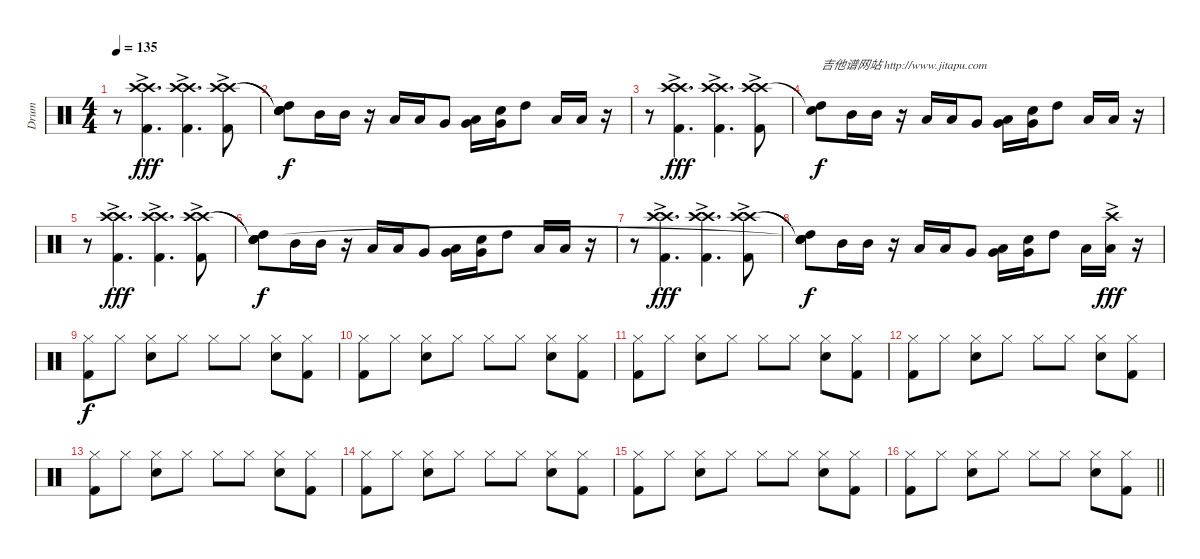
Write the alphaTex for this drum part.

\track ("Drum" "Drum") {instrument percussion}
\staff {score}
\articulation defaults
\ts (4 4)
\tempo 135
\clef neutral
\ks c
r.8{dy f} ("Crash high (hit)"{ac} "Crash high (hit)"{ac} "Kick (hit) 2"{ac}).4{d dy fff} ("Crash high (hit)"{ac} "Crash high (hit)"{ac} "Kick (hit) 2"{ac}).4{d} ("Crash high (hit)"{ac} "Crash high (hit)"{ac} "Kick (hit) 2"{ac}).8 |
("Snare (hit)"{t} "Snare (hit)"{t} "High Tom (hit)" "Snare (hit)").8{dy f} "Mid Tom (hit)".16 "Mid Tom (hit)".16 r.16 "Low Tom (hit)".16 "Low Tom (hit)".16 "Very Low Tom (hit)".8 ("Low Floor Tom (hit)" "Very Low Tom (hit)").16 ("Electric Snare (hit)" "Very Low Tom (hit)").16 "High Tom (hit)".8 "Low Floor Tom (hit)".16 "Low Floor Tom (hit)".16 r.16 |
r.8 ("Crash high (hit)"{ac} "Crash high (hit)"{ac} "Kick (hit) 2"{ac}).4{d dy fff} ("Crash high (hit)"{ac} "Crash high (hit)"{ac} "Kick (hit) 2"{ac}).4{d} ("Crash high (hit)"{ac} "Crash high (hit)"{ac} "Kick (hit) 2"{ac}).8 |
("High Tom (hit)" "Snare (hit)"{t}).8{txt "吉他谱网站 http://www.jitapu.com" dy f} "Mid Tom (hit)".16 "Mid Tom (hit)".16 r.16 "Low Tom (hit)".16 "Low Tom (hit)".16 "Very Low Tom (hit)".8 ("Low Floor Tom (hit)" "Very Low Tom (hit)").16 ("Electric Snare (hit)" "Very Low Tom (hit)").16 "High Tom (hit)".8 "Low Floor Tom (hit)".16 "Low Floor Tom (hit)".16 r.16 |
r.8 ("Crash high (hit)"{ac} "Crash high (hit)"{ac} "Kick (hit) 2"{ac}).4{d dy fff} ("Crash high (hit)"{ac} "Crash high (hit)"{ac} "Kick (hit) 2"{ac}).4{d} ("Crash high (hit)"{ac} "Crash high (hit)"{ac} "Kick (hit) 2"{ac}).8 |
("Snare (hit)"{t} "Snare (hit)"{t} "High Tom (hit)" "Snare (hit)").8{dy f} "Mid Tom (hit)".16 "Mid Tom (hit)".16 r.16 "Low Tom (hit)".16 "Low Tom (hit)".16 "Very Low Tom (hit)".8 ("Low Floor Tom (hit)" "Very Low Tom (hit)").16 ("Electric Snare (hit)" "Very Low Tom (hit)").16 "High Tom (hit)".8 "Low Floor Tom (hit)".16 "Low Floor Tom (hit)".16 r.16 |
r.8 ("Crash high (hit)"{ac} "Crash high (hit)"{ac} "Kick (hit) 2"{ac}).4{d dy fff} ("Crash high (hit)"{ac} "Crash high (hit)"{ac} "Kick (hit) 2"{ac}).4{d} ("Crash high (hit)"{ac} "Crash high (hit)"{ac} "Kick (hit) 2"{ac}).8 |
("Snare (hit)"{t} "Snare (hit)"{t} "High Tom (hit)" "Snare (hit)"{t}).8{dy f} "Mid Tom (hit)".16 "Mid Tom (hit)".16 r.16 "Low Tom (hit)".16 "Low Tom (hit)".16 "Very Low Tom (hit)".8 ("Low Floor Tom (hit)" "Very Low Tom (hit)").16 ("Electric Snare (hit)" "Very Low Tom (hit)").16 "High Tom (hit)".8 "Low Floor Tom (hit)".16 ("Crash high (hit)"{ac} "Low Floor Tom (hit)").16{dy fff} r.16 |
("Hi-Hat (closed)" "Kick (hit) 2").8{dy f} "Hi-Hat (closed)".8 ("Snare (hit) 2" "Hi-Hat (closed)").8 "Hi-Hat (closed)".8 "Hi-Hat (closed)".8 "Hi-Hat (closed)".8 ("Snare (hit) 2" "Hi-Hat (closed)").8 ("Hi-Hat (closed)" "Kick (hit) 2").8 |
("Hi-Hat (closed)" "Kick (hit) 2").8 "Hi-Hat (closed)".8 ("Snare (hit) 2" "Hi-Hat (closed)").8 "Hi-Hat (closed)".8 "Hi-Hat (closed)".8 "Hi-Hat (closed)".8 ("Snare (hit) 2" "Hi-Hat (closed)").8 ("Hi-Hat (closed)" "Kick (hit) 2").8 |
("Hi-Hat (closed)" "Kick (hit) 2").8 "Hi-Hat (closed)".8 ("Snare (hit) 2" "Hi-Hat (closed)").8 "Hi-Hat (closed)".8 "Hi-Hat (closed)".8 "Hi-Hat (closed)".8 ("Snare (hit) 2" "Hi-Hat (closed)").8 ("Hi-Hat (closed)" "Kick (hit) 2").8 |
("Hi-Hat (closed)" "Kick (hit) 2").8 "Hi-Hat (closed)".8 ("Snare (hit) 2" "Hi-Hat (closed)").8 "Hi-Hat (closed)".8 "Hi-Hat (closed)".8 "Hi-Hat (closed)".8 ("Snare (hit) 2" "Hi-Hat (closed)").8 ("Hi-Hat (closed)" "Kick (hit) 2").8 |
("Hi-Hat (closed)" "Kick (hit) 2").8 "Hi-Hat (closed)".8 ("Snare (hit) 2" "Hi-Hat (closed)").8 "Hi-Hat (closed)".8 "Hi-Hat (closed)".8 "Hi-Hat (closed)".8 ("Snare (hit) 2" "Hi-Hat (closed)").8 ("Hi-Hat (closed)" "Kick (hit) 2").8 |
("Hi-Hat (closed)" "Kick (hit) 2").8 "Hi-Hat (closed)".8 ("Snare (hit) 2" "Hi-Hat (closed)").8 "Hi-Hat (closed)".8 "Hi-Hat (closed)".8 "Hi-Hat (closed)".8 ("Snare (hit) 2" "Hi-Hat (closed)").8 ("Hi-Hat (closed)" "Kick (hit) 2").8 |
("Hi-Hat (closed)" "Kick (hit) 2").8 "Hi-Hat (closed)".8 ("Snare (hit) 2" "Hi-Hat (closed)").8 "Hi-Hat (closed)".8 "Hi-Hat (closed)".8 "Hi-Hat (closed)".8 ("Snare (hit) 2" "Hi-Hat (closed)").8 ("Hi-Hat (closed)" "Kick (hit) 2").8 |
\barLineRight lightlight
("Hi-Hat (closed)" "Kick (hit) 2").8 "Hi-Hat (closed)".8 ("Snare (hit) 2" "Hi-Hat (closed)").8 "Hi-Hat (closed)".8 "Hi-Hat (closed)".8 "Hi-Hat (closed)".8 ("Snare (hit) 2" "Hi-Hat (closed)").8 ("Hi-Hat (closed)" "Kick (hit) 2").8
